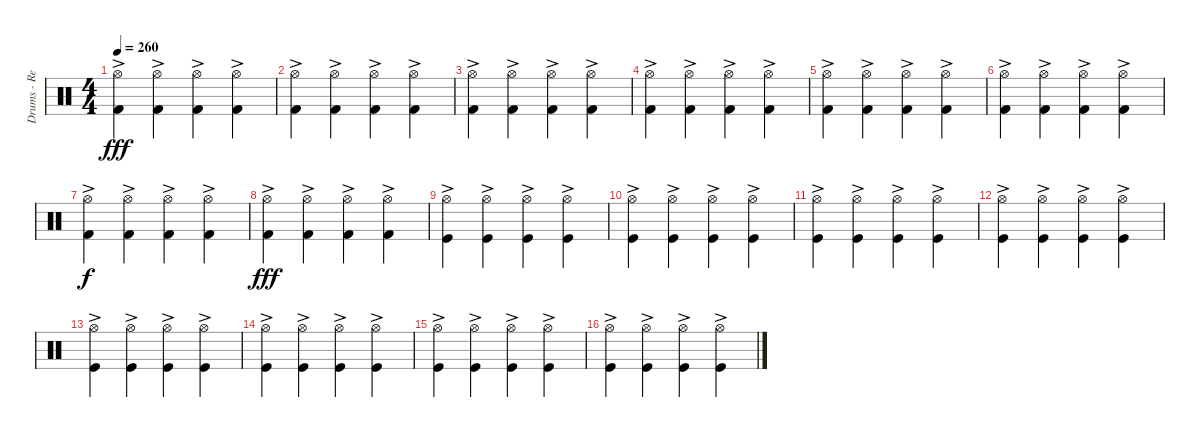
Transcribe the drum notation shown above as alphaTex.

\track ("Drums - Re'a Mochiach" "Drums - Re") {instrument percussion}
\staff {score}
\articulation defaults
\ts (4 4)
\tempo 260
\clef neutral
\ks c
("Hi-Hat (open)"{ac} "Kick (hit) 2").4{dy fff} ("Hi-Hat (open)"{ac} "Kick (hit) 2").4 ("Hi-Hat (open)"{ac} "Kick (hit) 2").4 ("Hi-Hat (open)"{ac} "Kick (hit) 2").4 |
("Hi-Hat (open)"{ac} "Kick (hit) 2").4 ("Hi-Hat (open)"{ac} "Kick (hit) 2").4 ("Hi-Hat (open)"{ac} "Kick (hit) 2").4 ("Hi-Hat (open)"{ac} "Kick (hit) 2").4 |
("Hi-Hat (open)"{ac} "Kick (hit) 2"{ac}).4 ("Hi-Hat (open)"{ac} "Kick (hit) 2"{ac}).4 ("Hi-Hat (open)"{ac} "Kick (hit) 2"{ac}).4 ("Hi-Hat (open)"{ac} "Kick (hit) 2"{ac}).4 |
("Hi-Hat (open)"{ac} "Kick (hit) 2"{ac}).4 ("Hi-Hat (open)"{ac} "Kick (hit) 2"{ac}).4 ("Hi-Hat (open)"{ac} "Kick (hit) 2"{ac}).4 ("Hi-Hat (open)"{ac} "Kick (hit) 2"{ac}).4 |
("Hi-Hat (open)"{ac} "Kick (hit) 2"{ac}).4 ("Hi-Hat (open)"{ac} "Kick (hit) 2"{ac}).4 ("Hi-Hat (open)"{ac} "Kick (hit) 2"{ac}).4 ("Hi-Hat (open)"{ac} "Kick (hit) 2"{ac}).4 |
("Hi-Hat (open)"{ac} "Kick (hit) 2"{ac}).4 ("Hi-Hat (open)"{ac} "Kick (hit) 2"{ac}).4 ("Hi-Hat (open)"{ac} "Kick (hit) 2"{ac}).4 ("Hi-Hat (open)"{ac} "Kick (hit) 2"{ac}).4 |
("Hi-Hat (open)"{ac} "Kick (hit) 2").4{dy f} ("Hi-Hat (open)"{ac} "Kick (hit) 2").4 ("Hi-Hat (open)"{ac} "Kick (hit) 2").4 ("Hi-Hat (open)"{ac} "Kick (hit) 2").4 |
("Hi-Hat (open)"{ac} "Kick (hit) 2"{ac}).4{dy fff} ("Hi-Hat (open)"{ac} "Kick (hit) 2"{ac}).4 ("Hi-Hat (open)"{ac} "Kick (hit) 2"{ac}).4 ("Hi-Hat (open)"{ac} "Kick (hit) 2"{ac}).4 |
("Hi-Hat (open)"{ac} "Kick (hit)"{ac}).4 ("Hi-Hat (open)"{ac} "Kick (hit)"{ac}).4 ("Hi-Hat (open)"{ac} "Kick (hit)"{ac}).4 ("Hi-Hat (open)"{ac} "Kick (hit)"{ac}).4 |
("Hi-Hat (open)"{ac} "Kick (hit)"{ac}).4 ("Hi-Hat (open)"{ac} "Kick (hit)"{ac}).4 ("Hi-Hat (open)"{ac} "Kick (hit)"{ac}).4 ("Hi-Hat (open)"{ac} "Kick (hit)"{ac}).4 |
("Hi-Hat (open)"{ac} "Kick (hit)"{ac}).4 ("Hi-Hat (open)"{ac} "Kick (hit)"{ac}).4 ("Hi-Hat (open)"{ac} "Kick (hit)"{ac}).4 ("Hi-Hat (open)"{ac} "Kick (hit)"{ac}).4 |
("Hi-Hat (open)"{ac} "Kick (hit)"{ac}).4 ("Hi-Hat (open)"{ac} "Kick (hit)"{ac}).4 ("Hi-Hat (open)"{ac} "Kick (hit)"{ac}).4 ("Hi-Hat (open)"{ac} "Kick (hit)"{ac}).4 |
("Hi-Hat (open)"{ac} "Kick (hit)"{ac}).4 ("Hi-Hat (open)"{ac} "Kick (hit)"{ac}).4 ("Hi-Hat (open)"{ac} "Kick (hit)"{ac}).4 ("Hi-Hat (open)"{ac} "Kick (hit)"{ac}).4 |
("Hi-Hat (open)"{ac} "Kick (hit)"{ac}).4 ("Hi-Hat (open)"{ac} "Kick (hit)"{ac}).4 ("Hi-Hat (open)"{ac} "Kick (hit)"{ac}).4 ("Hi-Hat (open)"{ac} "Kick (hit)"{ac}).4 |
("Hi-Hat (open)"{ac} "Kick (hit)"{ac}).4 ("Hi-Hat (open)"{ac} "Kick (hit)"{ac}).4 ("Hi-Hat (open)"{ac} "Kick (hit)"{ac}).4 ("Hi-Hat (open)"{ac} "Kick (hit)"{ac}).4 |
("Hi-Hat (open)"{ac} "Kick (hit)"{ac}).4 ("Hi-Hat (open)"{ac} "Kick (hit)"{ac}).4 ("Hi-Hat (open)"{ac} "Kick (hit)"{ac}).4 ("Hi-Hat (open)"{ac} "Kick (hit)"{ac}).4
